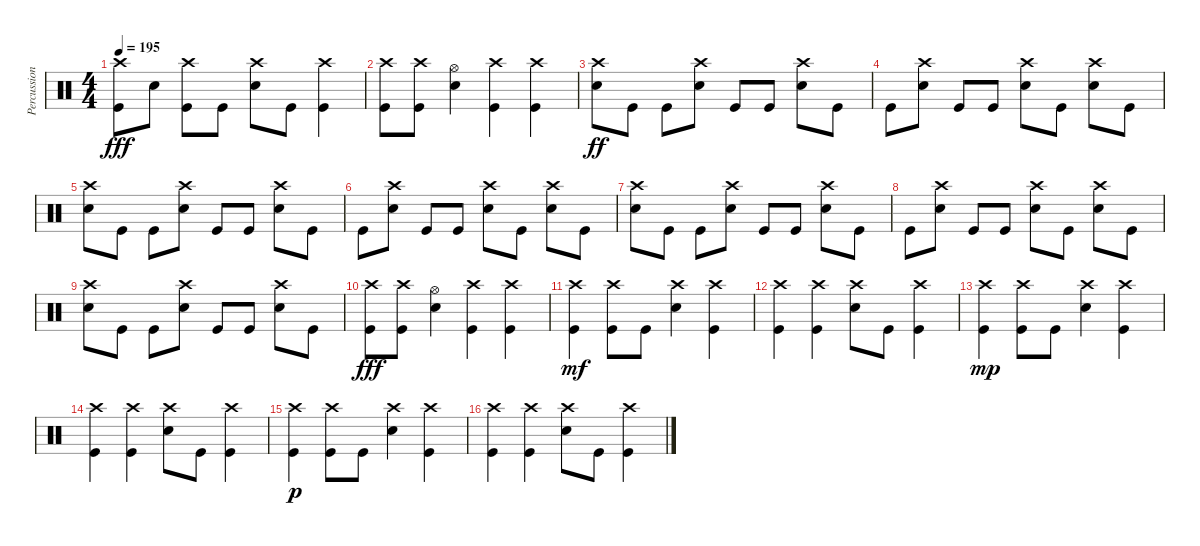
\track ("Percussions" "Percussion") {instrument percussion}
\staff {score}
\articulation defaults
\ts (4 4)
\tempo 195
\clef neutral
\ks c
("Crash high (hit)" "Kick (hit)").8{dy fff} "Electric Snare (hit)".8 ("Crash high (hit)" "Kick (hit)").8 "Kick (hit)".8 ("Crash high (hit)" "Electric Snare (hit)").8 "Kick (hit)".8 ("Crash high (hit)" "Kick (hit)").4 |
("Crash high (hit)" "Kick (hit)").8 ("Crash high (hit)" "Kick (hit)").8 ("Hi-Hat (open)" "Electric Snare (hit)").4 ("Crash high (hit)" "Kick (hit)").4 ("Crash high (hit)" "Kick (hit)").4 |
("Crash high (hit)" "Electric Snare (hit)").8{dy ff} "Kick (hit)".8 "Kick (hit)".8 ("Crash high (hit)" "Electric Snare (hit)").8 "Kick (hit)".8 "Kick (hit)".8 ("Crash high (hit)" "Electric Snare (hit)").8 "Kick (hit)".8 |
"Kick (hit)".8 ("Crash high (hit)" "Electric Snare (hit)").8 "Kick (hit)".8 "Kick (hit)".8 ("Crash high (hit)" "Electric Snare (hit)").8 "Kick (hit)".8 ("Crash high (hit)" "Electric Snare (hit)").8 "Kick (hit)".8 |
("Crash high (hit)" "Electric Snare (hit)").8 "Kick (hit)".8 "Kick (hit)".8 ("Crash high (hit)" "Electric Snare (hit)").8 "Kick (hit)".8 "Kick (hit)".8 ("Crash high (hit)" "Electric Snare (hit)").8 "Kick (hit)".8 |
"Kick (hit)".8 ("Crash high (hit)" "Electric Snare (hit)").8 "Kick (hit)".8 "Kick (hit)".8 ("Crash high (hit)" "Electric Snare (hit)").8 "Kick (hit)".8 ("Crash high (hit)" "Electric Snare (hit)").8 "Kick (hit)".8 |
("Crash high (hit)" "Electric Snare (hit)").8 "Kick (hit)".8 "Kick (hit)".8 ("Crash high (hit)" "Electric Snare (hit)").8 "Kick (hit)".8 "Kick (hit)".8 ("Crash high (hit)" "Electric Snare (hit)").8 "Kick (hit)".8 |
"Kick (hit)".8 ("Crash high (hit)" "Electric Snare (hit)").8 "Kick (hit)".8 "Kick (hit)".8 ("Crash high (hit)" "Electric Snare (hit)").8 "Kick (hit)".8 ("Crash high (hit)" "Electric Snare (hit)").8 "Kick (hit)".8 |
("Crash high (hit)" "Electric Snare (hit)").8 "Kick (hit)".8 "Kick (hit)".8 ("Crash high (hit)" "Electric Snare (hit)").8 "Kick (hit)".8 "Kick (hit)".8 ("Crash high (hit)" "Electric Snare (hit)").8 "Kick (hit)".8 |
("Crash high (hit)" "Kick (hit)").8{dy fff} ("Crash high (hit)" "Kick (hit)").8 ("Hi-Hat (open)" "Electric Snare (hit)").4 ("Crash high (hit)" "Kick (hit)").4 ("Crash high (hit)" "Kick (hit)").4 |
("Crash high (hit)" "Kick (hit)").4{dy mf} ("Crash high (hit)" "Kick (hit)").8 "Kick (hit)".8 ("Crash high (hit)" "Electric Snare (hit)").4 ("Crash high (hit)" "Kick (hit)").4 |
("Crash high (hit)" "Kick (hit)").4 ("Crash high (hit)" "Kick (hit)").4 ("Crash high (hit)" "Electric Snare (hit)").8 "Kick (hit)".8 ("Crash high (hit)" "Kick (hit)").4 |
("Crash high (hit)" "Kick (hit)").4{dy mp} ("Crash high (hit)" "Kick (hit)").8 "Kick (hit)".8 ("Crash high (hit)" "Electric Snare (hit)").4 ("Crash high (hit)" "Kick (hit)").4 |
("Crash high (hit)" "Kick (hit)").4 ("Crash high (hit)" "Kick (hit)").4 ("Crash high (hit)" "Electric Snare (hit)").8 "Kick (hit)".8 ("Crash high (hit)" "Kick (hit)").4 |
("Crash high (hit)" "Kick (hit)").4{dy p} ("Crash high (hit)" "Kick (hit)").8 "Kick (hit)".8 ("Crash high (hit)" "Electric Snare (hit)").4 ("Crash high (hit)" "Kick (hit)").4 |
("Crash high (hit)" "Kick (hit)").4 ("Crash high (hit)" "Kick (hit)").4 ("Crash high (hit)" "Electric Snare (hit)").8 "Kick (hit)".8 ("Crash high (hit)" "Kick (hit)").4
